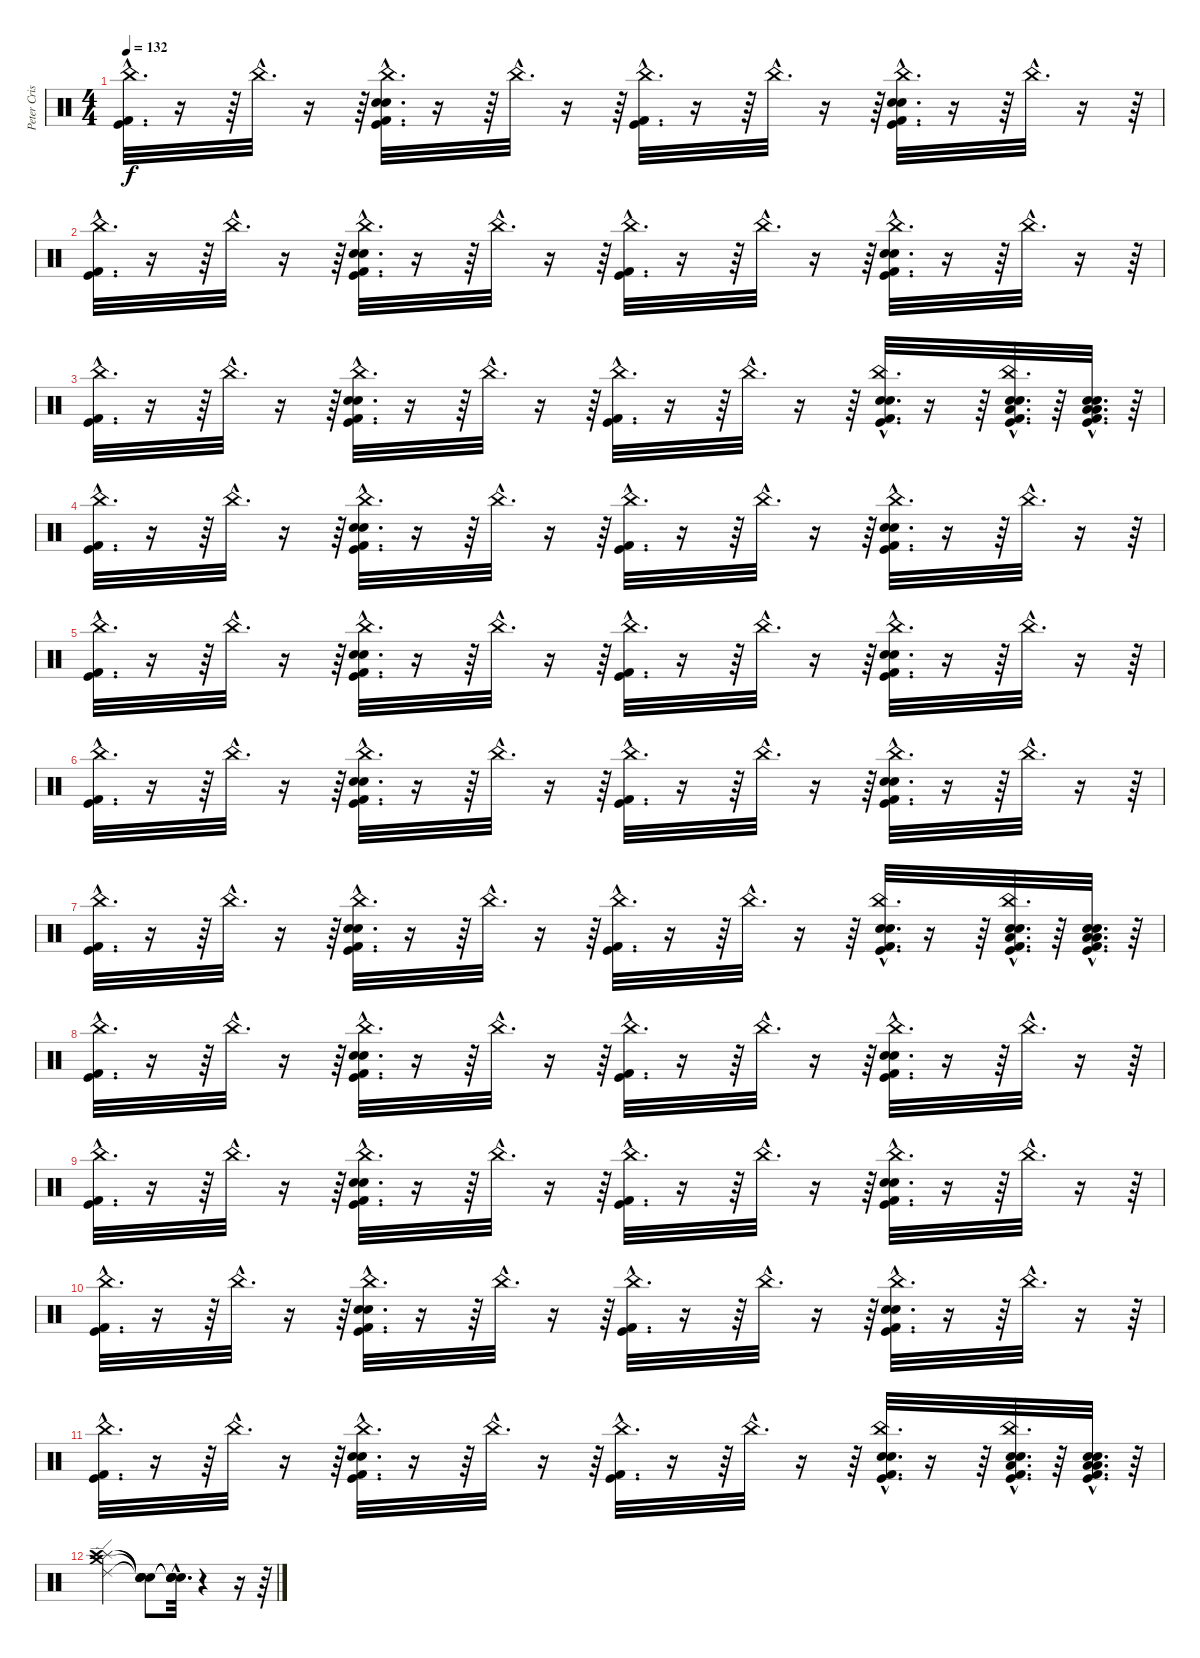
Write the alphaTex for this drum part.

\track ("Peter Criss" "Peter Cris") {instrument percussion}
\staff {score}
\articulation defaults
\ts (4 4)
\tempo 132
\clef neutral
\ks c
("Kick (hit) 2"{hac} "Kick (hit)"{hac} "China (hit)"{hac}).32{d dy f} r.16 r.64 "China (hit)"{hac}.32{d} r.16 r.64 ("Kick (hit) 2"{hac} "Kick (hit)"{hac} "China (hit)"{hac} "Electric Snare (hit)"{hac} "Snare (hit) 2"{hac}).32{d} r.16 r.64 "China (hit)"{hac}.32{d} r.16 r.64 ("Kick (hit) 2"{hac} "Kick (hit)"{hac} "China (hit)"{hac}).32{d} r.16 r.64 "China (hit)"{hac}.32{d} r.16 r.64 ("Kick (hit) 2"{hac} "Kick (hit)"{hac} "China (hit)"{hac} "Electric Snare (hit)"{hac} "Snare (hit) 2"{hac}).32{d} r.16 r.64 "China (hit)"{hac}.32{d} r.16 r.64 |
("Kick (hit) 2"{hac} "Kick (hit)"{hac} "China (hit)"{hac}).32{d} r.16 r.64 "China (hit)"{hac}.32{d} r.16 r.64 ("Kick (hit) 2"{hac} "Kick (hit)"{hac} "China (hit)"{hac} "Electric Snare (hit)"{hac} "Snare (hit) 2"{hac}).32{d} r.16 r.64 "China (hit)"{hac}.32{d} r.16 r.64 ("Kick (hit) 2"{hac} "Kick (hit)"{hac} "China (hit)"{hac}).32{d} r.16 r.64 "China (hit)"{hac}.32{d} r.16 r.64 ("Kick (hit) 2"{hac} "Kick (hit)"{hac} "China (hit)"{hac} "Electric Snare (hit)"{hac} "Snare (hit) 2"{hac}).32{d} r.16 r.64 "China (hit)"{hac}.32{d} r.16 r.64 |
("Kick (hit) 2"{hac} "Kick (hit)"{hac} "China (hit)"{hac}).32{d} r.16 r.64 "China (hit)"{hac}.32{d} r.16 r.64 ("Kick (hit) 2"{hac} "Kick (hit)"{hac} "China (hit)"{hac} "Electric Snare (hit)"{hac} "Snare (hit) 2"{hac}).32{d} r.16 r.64 "China (hit)"{hac}.32{d} r.16 r.64 ("Kick (hit) 2"{hac} "Kick (hit)"{hac} "China (hit)"{hac}).32{d} r.16 r.64 "China (hit)"{hac}.32{d} r.16 r.64 ("Kick (hit) 2"{hac} "Kick (hit)"{hac} "China (hit)"{hac} "Electric Snare (hit)"{hac} "Snare (hit) 2"{hac}).32{d} r.16 r.64 ("China (hit)"{hac} "Electric Snare (hit)"{hac} "Snare (hit) 2"{hac} "Kick (hit) 2"{hac} "Kick (hit)"{hac} "Low Floor Tom (hit)"{hac}).32{d} r.64 ("Electric Snare (hit)"{hac} "Snare (hit) 2"{hac} "Kick (hit) 2"{hac} "Kick (hit)"{hac} "Low Tom (hit)"{hac} "Low Floor Tom (hit)"{hac}).32{d} r.64 |
("Kick (hit) 2"{hac} "Kick (hit)"{hac} "China (hit)"{hac}).32{d} r.16 r.64 "China (hit)"{hac}.32{d} r.16 r.64 ("Kick (hit) 2"{hac} "Kick (hit)"{hac} "China (hit)"{hac} "Electric Snare (hit)"{hac} "Snare (hit) 2"{hac}).32{d} r.16 r.64 "China (hit)"{hac}.32{d} r.16 r.64 ("Kick (hit) 2"{hac} "Kick (hit)"{hac} "China (hit)"{hac}).32{d} r.16 r.64 "China (hit)"{hac}.32{d} r.16 r.64 ("Kick (hit) 2"{hac} "Kick (hit)"{hac} "China (hit)"{hac} "Electric Snare (hit)"{hac} "Snare (hit) 2"{hac}).32{d} r.16 r.64 "China (hit)"{hac}.32{d} r.16 r.64 |
("Kick (hit) 2"{hac} "Kick (hit)"{hac} "China (hit)"{hac}).32{d} r.16 r.64 "China (hit)"{hac}.32{d} r.16 r.64 ("Kick (hit) 2"{hac} "Kick (hit)"{hac} "China (hit)"{hac} "Electric Snare (hit)"{hac} "Snare (hit) 2"{hac}).32{d} r.16 r.64 "China (hit)"{hac}.32{d} r.16 r.64 ("Kick (hit) 2"{hac} "Kick (hit)"{hac} "China (hit)"{hac}).32{d} r.16 r.64 "China (hit)"{hac}.32{d} r.16 r.64 ("Kick (hit) 2"{hac} "Kick (hit)"{hac} "China (hit)"{hac} "Electric Snare (hit)"{hac} "Snare (hit) 2"{hac}).32{d} r.16 r.64 "China (hit)"{hac}.32{d} r.16 r.64 |
("Kick (hit) 2"{hac} "Kick (hit)"{hac} "China (hit)"{hac}).32{d} r.16 r.64 "China (hit)"{hac}.32{d} r.16 r.64 ("Kick (hit) 2"{hac} "Kick (hit)"{hac} "China (hit)"{hac} "Electric Snare (hit)"{hac} "Snare (hit) 2"{hac}).32{d} r.16 r.64 "China (hit)"{hac}.32{d} r.16 r.64 ("Kick (hit) 2"{hac} "Kick (hit)"{hac} "China (hit)"{hac}).32{d} r.16 r.64 "China (hit)"{hac}.32{d} r.16 r.64 ("Kick (hit) 2"{hac} "Kick (hit)"{hac} "China (hit)"{hac} "Electric Snare (hit)"{hac} "Snare (hit) 2"{hac}).32{d} r.16 r.64 "China (hit)"{hac}.32{d} r.16 r.64 |
("Kick (hit) 2"{hac} "Kick (hit)"{hac} "China (hit)"{hac}).32{d} r.16 r.64 "China (hit)"{hac}.32{d} r.16 r.64 ("Kick (hit) 2"{hac} "Kick (hit)"{hac} "China (hit)"{hac} "Electric Snare (hit)"{hac} "Snare (hit) 2"{hac}).32{d} r.16 r.64 "China (hit)"{hac}.32{d} r.16 r.64 ("Kick (hit) 2"{hac} "Kick (hit)"{hac} "China (hit)"{hac}).32{d} r.16 r.64 "China (hit)"{hac}.32{d} r.16 r.64 ("Kick (hit) 2"{hac} "Kick (hit)"{hac} "China (hit)"{hac} "Electric Snare (hit)"{hac} "Snare (hit) 2"{hac}).32{d} r.16 r.64 ("China (hit)"{hac} "Electric Snare (hit)"{hac} "Snare (hit) 2"{hac} "Kick (hit) 2"{hac} "Kick (hit)"{hac} "Low Floor Tom (hit)"{hac}).32{d} r.64 ("Electric Snare (hit)"{hac} "Snare (hit) 2"{hac} "Kick (hit) 2"{hac} "Kick (hit)"{hac} "Low Tom (hit)"{hac} "Low Floor Tom (hit)"{hac}).32{d} r.64 |
("Kick (hit) 2"{hac} "Kick (hit)"{hac} "China (hit)"{hac}).32{d} r.16 r.64 "China (hit)"{hac}.32{d} r.16 r.64 ("Kick (hit) 2"{hac} "Kick (hit)"{hac} "China (hit)"{hac} "Electric Snare (hit)"{hac} "Snare (hit) 2"{hac}).32{d} r.16 r.64 "China (hit)"{hac}.32{d} r.16 r.64 ("Kick (hit) 2"{hac} "Kick (hit)"{hac} "China (hit)"{hac}).32{d} r.16 r.64 "China (hit)"{hac}.32{d} r.16 r.64 ("Kick (hit) 2"{hac} "Kick (hit)"{hac} "China (hit)"{hac} "Electric Snare (hit)"{hac} "Snare (hit) 2"{hac}).32{d} r.16 r.64 "China (hit)"{hac}.32{d} r.16 r.64 |
("Kick (hit) 2"{hac} "Kick (hit)"{hac} "China (hit)"{hac}).32{d} r.16 r.64 "China (hit)"{hac}.32{d} r.16 r.64 ("Kick (hit) 2"{hac} "Kick (hit)"{hac} "China (hit)"{hac} "Electric Snare (hit)"{hac} "Snare (hit) 2"{hac}).32{d} r.16 r.64 "China (hit)"{hac}.32{d} r.16 r.64 ("Kick (hit) 2"{hac} "Kick (hit)"{hac} "China (hit)"{hac}).32{d} r.16 r.64 "China (hit)"{hac}.32{d} r.16 r.64 ("Kick (hit) 2"{hac} "Kick (hit)"{hac} "China (hit)"{hac} "Electric Snare (hit)"{hac} "Snare (hit) 2"{hac}).32{d} r.16 r.64 "China (hit)"{hac}.32{d} r.16 r.64 |
("Kick (hit) 2"{hac} "Kick (hit)"{hac} "China (hit)"{hac}).32{d} r.16 r.64 "China (hit)"{hac}.32{d} r.16 r.64 ("Kick (hit) 2"{hac} "Kick (hit)"{hac} "China (hit)"{hac} "Electric Snare (hit)"{hac} "Snare (hit) 2"{hac}).32{d} r.16 r.64 "China (hit)"{hac}.32{d} r.16 r.64 ("Kick (hit) 2"{hac} "Kick (hit)"{hac} "China (hit)"{hac}).32{d} r.16 r.64 "China (hit)"{hac}.32{d} r.16 r.64 ("Kick (hit) 2"{hac} "Kick (hit)"{hac} "China (hit)"{hac} "Electric Snare (hit)"{hac} "Snare (hit) 2"{hac}).32{d} r.16 r.64 "China (hit)"{hac}.32{d} r.16 r.64 |
("Kick (hit) 2"{hac} "Kick (hit)"{hac} "China (hit)"{hac}).32{d} r.16 r.64 "China (hit)"{hac}.32{d} r.16 r.64 ("Kick (hit) 2"{hac} "Kick (hit)"{hac} "China (hit)"{hac} "Electric Snare (hit)"{hac} "Snare (hit) 2"{hac}).32{d} r.16 r.64 "China (hit)"{hac}.32{d} r.16 r.64 ("Kick (hit) 2"{hac} "Kick (hit)"{hac} "China (hit)"{hac}).32{d} r.16 r.64 "China (hit)"{hac}.32{d} r.16 r.64 ("Kick (hit) 2"{hac} "Kick (hit)"{hac} "China (hit)"{hac} "Electric Snare (hit)"{hac} "Snare (hit) 2"{hac}).32{d} r.16 r.64 ("China (hit)"{hac} "Electric Snare (hit)"{hac} "Snare (hit) 2"{hac} "Kick (hit) 2"{hac} "Kick (hit)"{hac} "Low Floor Tom (hit)"{hac}).32{d} r.64 ("Electric Snare (hit)"{hac} "Snare (hit) 2"{hac} "Kick (hit) 2"{hac} "Kick (hit)"{hac} "Low Tom (hit)"{hac} "Low Floor Tom (hit)"{hac}).32{d} r.64 |
("Ride (edge) 2" "Crash medium (hit)" "Splash (hit)" "Crash high (hit)").2 ("Snare (hit)"{t} "Snare (hit)"{t} "Snare (hit)"{t} "Snare (hit)"{t}).8 ("Snare (hit)"{hac t} "Snare (hit)"{hac t} "Snare (hit)"{hac t} "Snare (hit)"{hac t}).32{d} r.4 r.16 r.64
